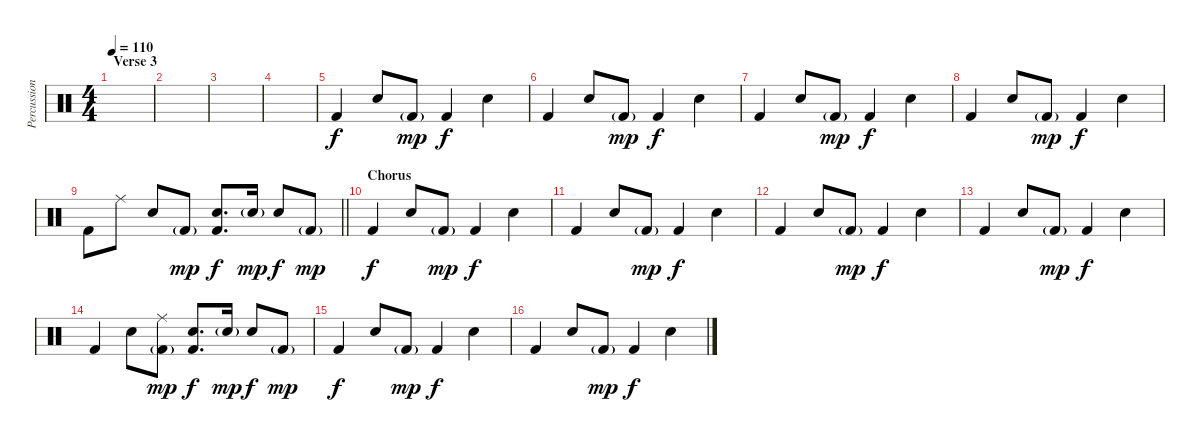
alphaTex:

\track ("Percussion" "Percussion") {instrument percussion}
\staff {score}
\articulation defaults
\ts (4 4)
\section ("" "Verse 3")
\tempo 110
\clef neutral
\ks c
|
|
|
|
"Kick (hit) 2".4{dy f} "Snare (hit) 2".8 "Kick (hit) 2"{g}.8{dy mp} "Kick (hit) 2".4{dy f} "Snare (hit) 2".4 |
"Kick (hit) 2".4 "Snare (hit) 2".8 "Kick (hit) 2"{g}.8{dy mp} "Kick (hit) 2".4{dy f} "Snare (hit) 2".4 |
"Kick (hit) 2".4 "Snare (hit) 2".8 "Kick (hit) 2"{g}.8{dy mp} "Kick (hit) 2".4{dy f} "Snare (hit) 2".4 |
"Kick (hit) 2".4 "Snare (hit) 2".8 "Kick (hit) 2"{g}.8{dy mp} "Kick (hit) 2".4{dy f} "Snare (hit) 2".4 |
\barLineRight lightlight "Kick (hit) 2".8 "Ride (middle)".8 "Snare (hit) 2".8 "Kick (hit) 2"{g}.8{dy mp}
("Snare (hit) 2" "Kick (hit) 2").8{d dy f} "Snare (hit) 2"{g}.16{dy mp} "Snare (hit) 2".8{dy f} "Kick (hit) 2"{g}.8{dy mp} |
\section ("" "Chorus")
"Kick (hit) 2".4{dy f} "Snare (hit) 2".8 "Kick (hit) 2"{g}.8{dy mp} "Kick (hit) 2".4{dy f} "Snare (hit) 2".4 |
"Kick (hit) 2".4 "Snare (hit) 2".8 "Kick (hit) 2"{g}.8{dy mp} "Kick (hit) 2".4{dy f} "Snare (hit) 2".4 |
"Kick (hit) 2".4 "Snare (hit) 2".8 "Kick (hit) 2"{g}.8{dy mp} "Kick (hit) 2".4{dy f} "Snare (hit) 2".4 |
"Kick (hit) 2".4 "Snare (hit) 2".8 "Kick (hit) 2"{g}.8{dy mp} "Kick (hit) 2".4{dy f} "Snare (hit) 2".4 |
"Kick (hit) 2".4 "Snare (hit) 2".8 ("Ride (middle)" "Kick (hit) 2"{g}).8{dy mp} ("Snare (hit) 2" "Kick (hit) 2").8{d dy f} "Snare (hit) 2"{g}.16{dy mp} "Snare (hit) 2".8{dy f} "Kick (hit) 2"{g}.8{dy mp} |
"Kick (hit) 2".4{dy f} "Snare (hit) 2".8 "Kick (hit) 2"{g}.8{dy mp} "Kick (hit) 2".4{dy f} "Snare (hit) 2".4 |
"Kick (hit) 2".4 "Snare (hit) 2".8 "Kick (hit) 2"{g}.8{dy mp} "Kick (hit) 2".4{dy f} "Snare (hit) 2".4
